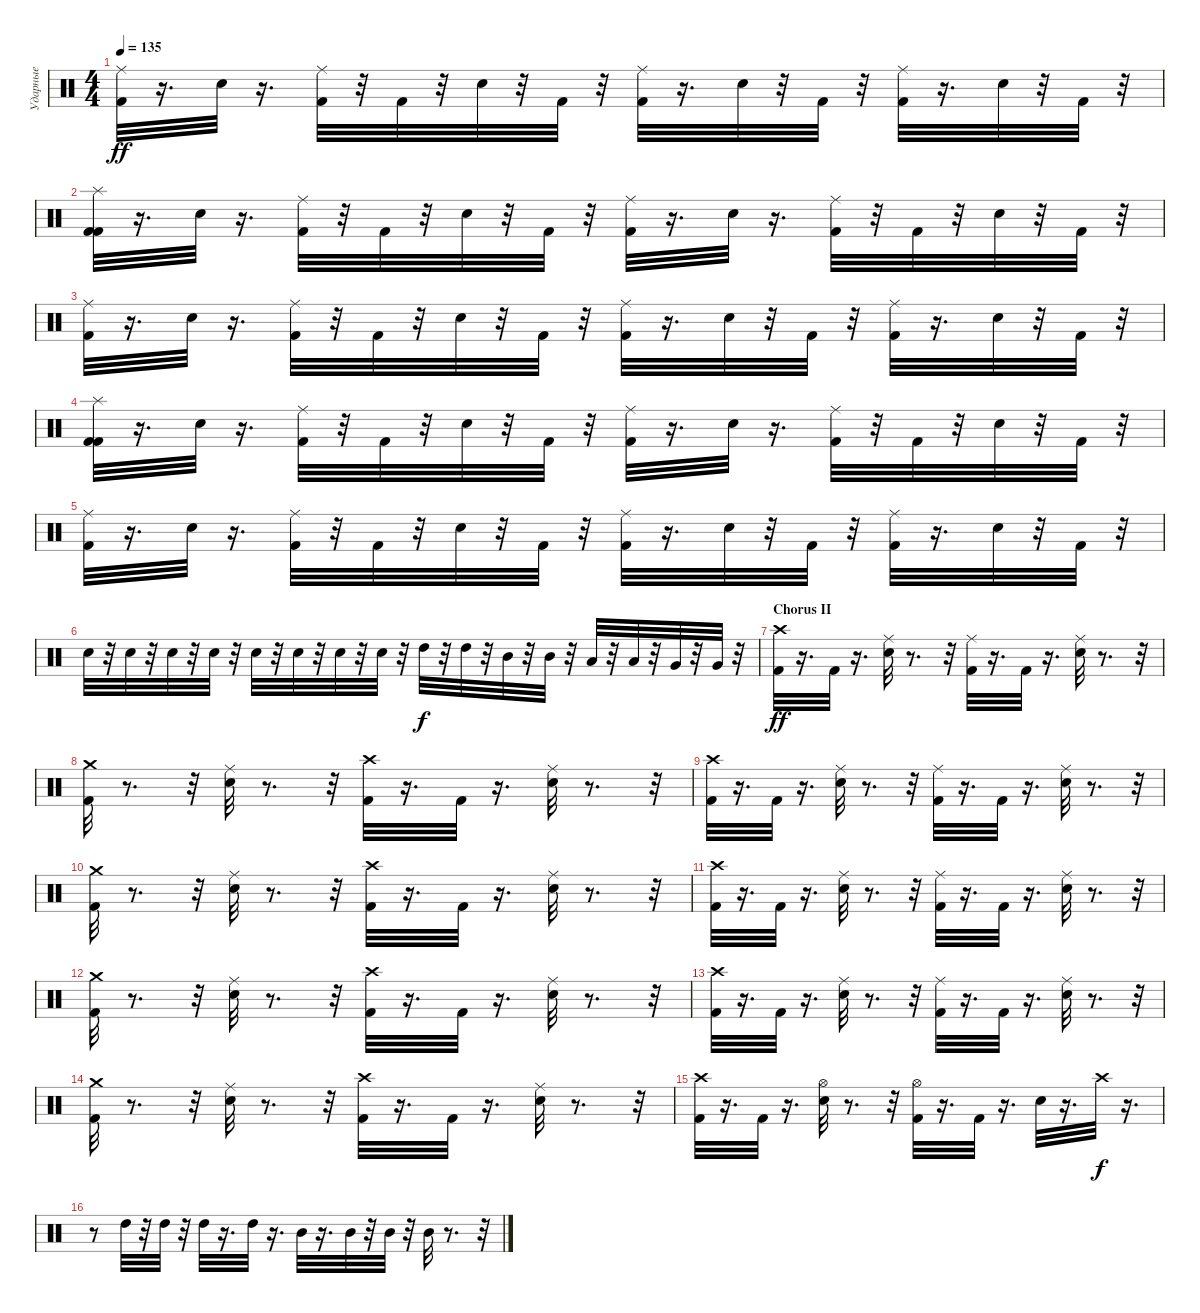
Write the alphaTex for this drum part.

\track ("Ударные" "Ударные") {instrument percussion}
\staff {score}
\articulation defaults
\ts (4 4)
\tempo 135
\clef neutral
\ks c
("Ride (middle)" "Kick (hit) 2").32{dy ff} r.16{d} "Electric Snare (hit)".32 r.16{d} ("Ride (middle)" "Kick (hit) 2").32 r.32 "Kick (hit) 2".32 r.32 "Electric Snare (hit)".32 r.32 "Kick (hit) 2".32 r.32 ("Kick (hit) 2" "Ride (middle)").32 r.16{d} "Electric Snare (hit)".32 r.32 "Kick (hit) 2".32 r.32 ("Ride (middle)" "Kick (hit) 2").32 r.16{d} "Electric Snare (hit)".32 r.32 "Kick (hit) 2".32 r.32 |
("Kick (hit) 2" "Kick (hit) 2" "Splash (hit)").32 r.16{d} "Electric Snare (hit)".32 r.16{d} ("Ride (middle)" "Kick (hit) 2").32 r.32 "Kick (hit) 2".32 r.32 "Electric Snare (hit)".32 r.32 "Kick (hit) 2".32 r.32 ("Ride (middle)" "Kick (hit) 2").32 r.16{d} "Electric Snare (hit)".32 r.16{d} ("Ride (middle)" "Kick (hit) 2").32 r.32 "Kick (hit) 2".32 r.32 "Electric Snare (hit)".32 r.32 "Kick (hit) 2".32 r.32 |
("Ride (middle)" "Kick (hit) 2").32 r.16{d} "Electric Snare (hit)".32 r.16{d} ("Ride (middle)" "Kick (hit) 2").32 r.32 "Kick (hit) 2".32 r.32 "Electric Snare (hit)".32 r.32 "Kick (hit) 2".32 r.32 ("Ride (middle)" "Kick (hit) 2").32 r.16{d} "Electric Snare (hit)".32 r.32 "Kick (hit) 2".32 r.32 ("Ride (middle)" "Kick (hit) 2").32 r.16{d} "Electric Snare (hit)".32 r.32 "Kick (hit) 2".32 r.32 |
("Kick (hit) 2" "Kick (hit) 2" "Splash (hit)").32 r.16{d} "Electric Snare (hit)".32 r.16{d} ("Ride (middle)" "Kick (hit) 2").32 r.32 "Kick (hit) 2".32 r.32 "Electric Snare (hit)".32 r.32 "Kick (hit) 2".32 r.32 ("Ride (middle)" "Kick (hit) 2").32 r.16{d} "Electric Snare (hit)".32 r.16{d} ("Ride (middle)" "Kick (hit) 2").32 r.32 "Kick (hit) 2".32 r.32 "Electric Snare (hit)".32 r.32 "Kick (hit) 2".32 r.32 |
("Ride (middle)" "Kick (hit) 2").32 r.16{d} "Electric Snare (hit)".32 r.16{d} ("Ride (middle)" "Kick (hit) 2").32 r.32 "Kick (hit) 2".32 r.32 "Electric Snare (hit)".32 r.32 "Kick (hit) 2".32 r.32 ("Ride (middle)" "Kick (hit) 2").32 r.16{d} "Electric Snare (hit)".32 r.32 "Kick (hit) 2".32 r.32 ("Ride (middle)" "Kick (hit) 2").32 r.16{d} "Electric Snare (hit)".32 r.32 "Kick (hit) 2".32 r.32 |
"Electric Snare (hit)".32 r.32 "Electric Snare (hit)".32 r.32 "Electric Snare (hit)".32 r.32 "Electric Snare (hit)".32 r.32 "Electric Snare (hit)".32 r.32 "Electric Snare (hit)".32 r.32 "Electric Snare (hit)".32 r.32 "Electric Snare (hit)".32 r.32 "High Tom (hit)".32{dy f} r.32 "High Tom (hit)".32 r.32 "Mid Tom (hit)".32 r.32 "Mid Tom (hit)".32 r.32 "Low Tom (hit)".32 r.32 "Low Tom (hit)".32 r.32 "Very Low Tom (hit)".32 r.32 "Very Low Tom (hit)".32 r.32 |
\section ("" "Chorus II")
("Crash high (hit)" "Kick (hit) 2").32{dy ff} r.16{d} "Kick (hit) 2".32 r.16{d} ("Ride (middle)" "Electric Snare (hit)").32 r.8{d} r.32 ("Ride (middle)" "Kick (hit) 2").32 r.16{d} "Kick (hit) 2".32 r.16{d} ("Ride (middle)" "Electric Snare (hit)").32 r.8{d} r.32 |
("Crash medium (hit)" "Kick (hit) 2").32 r.8{d} r.32 ("Ride (middle)" "Electric Snare (hit)").32 r.8{d} r.32 ("Crash high (hit)" "Kick (hit) 2").32 r.16{d} "Kick (hit) 2".32 r.16{d} ("Ride (middle)" "Electric Snare (hit)").32 r.8{d} r.32 |
("Crash high (hit)" "Kick (hit) 2").32 r.16{d} "Kick (hit) 2".32 r.16{d} ("Ride (middle)" "Electric Snare (hit)").32 r.8{d} r.32 ("Ride (middle)" "Kick (hit) 2").32 r.16{d} "Kick (hit) 2".32 r.16{d} ("Ride (middle)" "Electric Snare (hit)").32 r.8{d} r.32 |
("Kick (hit) 2" "Crash medium (hit)").32 r.8{d} r.32 ("Electric Snare (hit)" "Ride (middle)").32 r.8{d} r.32 ("Kick (hit) 2" "Crash high (hit)").32 r.16{d} "Kick (hit) 2".32 r.16{d} ("Electric Snare (hit)" "Ride (middle)").32 r.8{d} r.32 |
("Crash high (hit)" "Kick (hit) 2").32 r.16{d} "Kick (hit) 2".32 r.16{d} ("Ride (middle)" "Electric Snare (hit)").32 r.8{d} r.32 ("Ride (middle)" "Kick (hit) 2").32 r.16{d} "Kick (hit) 2".32 r.16{d} ("Ride (middle)" "Electric Snare (hit)").32 r.8{d} r.32 |
("Crash medium (hit)" "Kick (hit) 2").32 r.8{d} r.32 ("Ride (middle)" "Electric Snare (hit)").32 r.8{d} r.32 ("Crash high (hit)" "Kick (hit) 2").32 r.16{d} "Kick (hit) 2".32 r.16{d} ("Ride (middle)" "Electric Snare (hit)").32 r.8{d} r.32 |
("Crash high (hit)" "Kick (hit) 2").32 r.16{d} "Kick (hit) 2".32 r.16{d} ("Ride (middle)" "Electric Snare (hit)").32 r.8{d} r.32 ("Ride (middle)" "Kick (hit) 2").32 r.16{d} "Kick (hit) 2".32 r.16{d} ("Ride (middle)" "Electric Snare (hit)").32 r.8{d} r.32 |
("Kick (hit) 2" "Crash medium (hit)").32 r.8{d} r.32 ("Electric Snare (hit)" "Ride (middle)").32 r.8{d} r.32 ("Kick (hit) 2" "Crash high (hit)").32 r.16{d} "Kick (hit) 2".32 r.16{d} ("Electric Snare (hit)" "Ride (middle)").32 r.8{d} r.32 |
("Crash high (hit)" "Kick (hit) 2").32 r.16{d} "Kick (hit) 2".32 r.16{d} ("Hi-Hat (open)" "Electric Snare (hit)").32 r.8{d} r.32 ("Hi-Hat (open)" "Kick (hit) 2").32 r.16{d} "Kick (hit) 2".32 r.16{d} "Electric Snare (hit)".32 r.16{d} "Crash high (hit)".32{dy f} r.16{d} |
r.8 "High Tom (hit)".32 r.32 "High Tom (hit)".32 r.32 "High Tom (hit)".32 r.16{d} "High Tom (hit)".32 r.16{d} "Mid Tom (hit)".32 r.16{d} "Mid Tom (hit)".32 r.32 "Mid Tom (hit)".32 r.32 "Mid Tom (hit)".32 r.8{d} r.32
